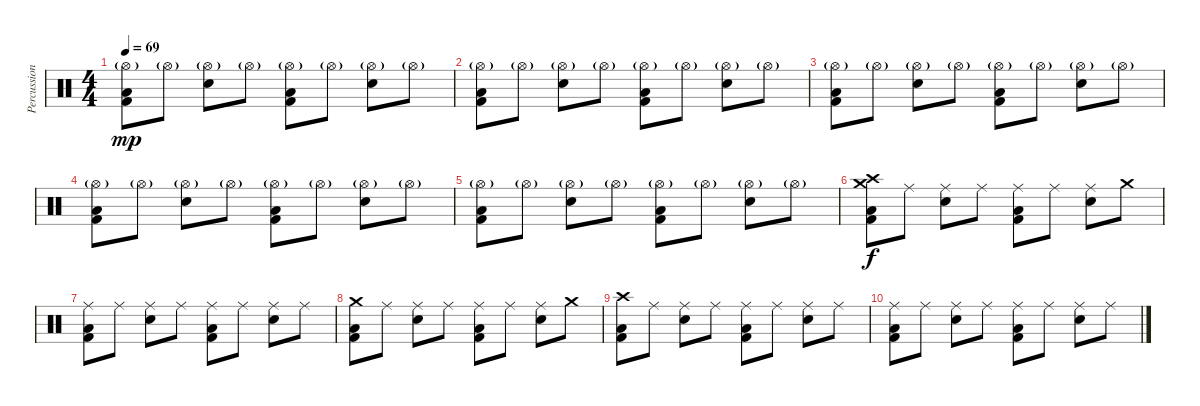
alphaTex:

\track ("Percussions" "Percussion") {instrument percussion}
\staff {score}
\articulation defaults
\ts (4 4)
\tempo 69
\clef neutral
\ks c
("Hi-Hat (open)"{g} "Low Floor Tom (hit)" "Kick (hit) 2").8{dy mp} "Hi-Hat (open)"{g}.8 ("Hi-Hat (open)"{g} "Electric Snare (hit)").8 "Hi-Hat (open)"{g}.8 ("Hi-Hat (open)"{g} "Low Floor Tom (hit)" "Kick (hit) 2").8 "Hi-Hat (open)"{g}.8 ("Hi-Hat (open)"{g} "Electric Snare (hit)").8 "Hi-Hat (open)"{g}.8 |
("Hi-Hat (open)"{g} "Low Floor Tom (hit)" "Kick (hit) 2").8 "Hi-Hat (open)"{g}.8 ("Hi-Hat (open)"{g} "Electric Snare (hit)").8 "Hi-Hat (open)"{g}.8 ("Hi-Hat (open)"{g} "Low Floor Tom (hit)" "Kick (hit) 2").8 "Hi-Hat (open)"{g}.8 ("Hi-Hat (open)"{g} "Electric Snare (hit)").8 "Hi-Hat (open)"{g}.8 |
("Hi-Hat (open)"{g} "Low Floor Tom (hit)" "Kick (hit) 2").8 "Hi-Hat (open)"{g}.8 ("Hi-Hat (open)"{g} "Electric Snare (hit)").8 "Hi-Hat (open)"{g}.8 ("Hi-Hat (open)"{g} "Low Floor Tom (hit)" "Kick (hit) 2").8 "Hi-Hat (open)"{g}.8 ("Hi-Hat (open)"{g} "Electric Snare (hit)").8 "Hi-Hat (open)"{g}.8 |
("Hi-Hat (open)"{g} "Low Floor Tom (hit)" "Kick (hit) 2").8 "Hi-Hat (open)"{g}.8 ("Hi-Hat (open)"{g} "Electric Snare (hit)").8 "Hi-Hat (open)"{g}.8 ("Hi-Hat (open)"{g} "Low Floor Tom (hit)" "Kick (hit) 2").8 "Hi-Hat (open)"{g}.8 ("Hi-Hat (open)"{g} "Electric Snare (hit)").8 "Hi-Hat (open)"{g}.8 |
("Hi-Hat (open)"{g} "Low Floor Tom (hit)" "Kick (hit) 2").8 "Hi-Hat (open)"{g}.8 ("Hi-Hat (open)"{g} "Electric Snare (hit)").8 "Hi-Hat (open)"{g}.8 ("Hi-Hat (open)"{g} "Low Floor Tom (hit)" "Kick (hit) 2").8 "Hi-Hat (open)"{g}.8 ("Hi-Hat (open)"{g} "Electric Snare (hit)").8 "Hi-Hat (open)"{g}.8 |
("Crash medium (hit)" "Crash high (hit)" "Low Tom (hit)" "Kick (hit) 2").8{dy f} "Ride (middle)".8 ("Ride (middle)" "Electric Snare (hit)").8 "Ride (middle)".8 ("Ride (middle)" "Low Floor Tom (hit)" "Kick (hit) 2").8 "Ride (middle)".8 ("Ride (middle)" "Electric Snare (hit)").8 "Crash medium (hit)".8 |
("Ride (middle)" "Low Tom (hit)" "Kick (hit) 2").8 "Ride (middle)".8 ("Ride (middle)" "Electric Snare (hit)").8 "Ride (middle)".8 ("Ride (middle)" "Low Floor Tom (hit)" "Kick (hit) 2").8 "Ride (middle)".8 ("Ride (middle)" "Electric Snare (hit)").8 "Ride (middle)".8 |
("Crash medium (hit)" "Low Floor Tom (hit)" "Kick (hit) 2").8 "Ride (middle)".8 ("Ride (middle)" "Electric Snare (hit)").8 "Ride (middle)".8 ("Ride (middle)" "Low Floor Tom (hit)" "Kick (hit) 2").8 "Ride (middle)".8 ("Ride (middle)" "Electric Snare (hit)").8 "Crash medium (hit)".8 |
("Crash high (hit)" "Low Floor Tom (hit)" "Kick (hit) 2").8 "Ride (middle)".8 ("Ride (middle)" "Electric Snare (hit)").8 "Ride (middle)".8 ("Ride (middle)" "Low Floor Tom (hit)" "Kick (hit) 2").8 "Ride (middle)".8 ("Ride (middle)" "Electric Snare (hit)").8 "Ride (middle)".8 |
("Ride (middle)" "Low Floor Tom (hit)" "Kick (hit) 2").8 "Ride (middle)".8 ("Ride (middle)" "Electric Snare (hit)").8 "Ride (middle)".8 ("Ride (middle)" "Low Floor Tom (hit)" "Kick (hit) 2").8 "Ride (middle)".8 ("Ride (middle)" "Electric Snare (hit)").8 "Ride (middle)".8
